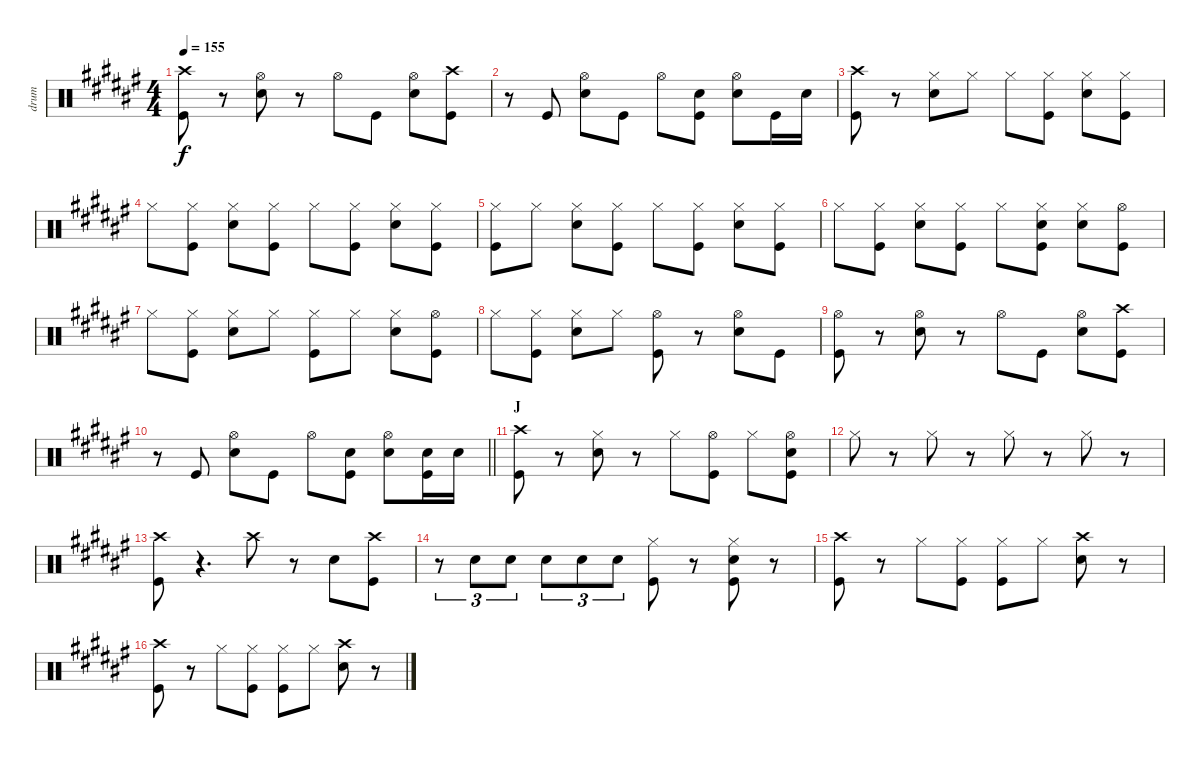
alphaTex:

\track ("drum" "drum") {instrument percussion}
\staff {score}
\articulation defaults
\ts (4 4)
\tempo 155
\clef neutral
\ks f#
("Crash high (hit)" "Kick (hit)").8{dy f} r.8 ("Hi-Hat (open)" "Snare (hit) 2").8 r.8 "Hi-Hat (open)".8 "Kick (hit)".8 ("Hi-Hat (open)" "Snare (hit) 2").8 ("Crash high (hit)" "Kick (hit)").8 |
r.8 "Kick (hit)".8 ("Hi-Hat (open)" "Snare (hit) 2").8 "Kick (hit)".8 "Hi-Hat (open)".8 ("Snare (hit) 2" "Kick (hit)").8 ("Hi-Hat (open)" "Snare (hit) 2").8 "Kick (hit)".16 "Snare (hit) 2".16 |
("Crash high (hit)" "Kick (hit)").8 r.8 ("Hi-Hat (closed)" "Snare (hit) 2").8 "Hi-Hat (closed)".8 "Hi-Hat (closed)".8 ("Hi-Hat (closed)" "Kick (hit)").8 ("Hi-Hat (closed)" "Snare (hit) 2").8 ("Hi-Hat (closed)" "Kick (hit)").8 |
"Hi-Hat (closed)".8 ("Hi-Hat (closed)" "Kick (hit)").8 ("Hi-Hat (closed)" "Snare (hit) 2").8 ("Hi-Hat (closed)" "Kick (hit)").8 "Hi-Hat (closed)".8 ("Hi-Hat (closed)" "Kick (hit)").8 ("Hi-Hat (closed)" "Snare (hit) 2").8 ("Hi-Hat (closed)" "Kick (hit)").8 |
("Hi-Hat (closed)" "Kick (hit)").8 "Hi-Hat (closed)".8 ("Hi-Hat (closed)" "Snare (hit) 2").8 ("Hi-Hat (closed)" "Kick (hit)").8 "Hi-Hat (closed)".8 ("Hi-Hat (closed)" "Kick (hit)").8 ("Hi-Hat (closed)" "Snare (hit) 2").8 ("Hi-Hat (closed)" "Kick (hit)").8 |
"Hi-Hat (closed)".8 ("Hi-Hat (closed)" "Kick (hit)").8 ("Hi-Hat (closed)" "Snare (hit) 2").8 ("Hi-Hat (closed)" "Kick (hit)").8 "Hi-Hat (closed)".8 ("Hi-Hat (closed)" "Snare (hit) 2" "Kick (hit)").8 ("Hi-Hat (closed)" "Snare (hit) 2").8 ("Hi-Hat (open)" "Kick (hit)").8 |
"Hi-Hat (closed)".8 ("Hi-Hat (closed)" "Kick (hit)").8 ("Hi-Hat (closed)" "Snare (hit) 2").8 "Hi-Hat (closed)".8 ("Hi-Hat (closed)" "Kick (hit)").8 "Hi-Hat (closed)".8 ("Hi-Hat (closed)" "Snare (hit) 2").8 ("Hi-Hat (open)" "Kick (hit)").8 |
"Hi-Hat (closed)".8 ("Hi-Hat (closed)" "Kick (hit)").8 ("Hi-Hat (closed)" "Snare (hit) 2").8 "Hi-Hat (closed)".8 ("Hi-Hat (open)" "Kick (hit)").8 r.8 ("Hi-Hat (open)" "Snare (hit) 2").8 "Kick (hit)".8 |
("Hi-Hat (open)" "Kick (hit)").8 r.8 ("Hi-Hat (open)" "Snare (hit) 2").8 r.8 "Hi-Hat (open)".8 "Kick (hit)".8 ("Hi-Hat (open)" "Snare (hit) 2").8 ("Crash high (hit)" "Kick (hit)").8 |
\barLineRight lightlight
r.8 "Kick (hit)".8 ("Hi-Hat (open)" "Snare (hit) 2").8 "Kick (hit)".8 "Hi-Hat (open)".8 ("Snare (hit) 2" "Kick (hit)").8 ("Hi-Hat (open)" "Snare (hit) 2").8 ("Snare (hit) 2" "Kick (hit)").16 "Snare (hit) 2".16 |
\section ("" "J")
("Crash high (hit)" "Kick (hit)").8 r.8 ("Hi-Hat (closed)" "Snare (hit) 2").8 r.8 "Hi-Hat (closed)".8 ("Hi-Hat (open)" "Kick (hit)").8 "Hi-Hat (closed)".8 ("Hi-Hat (open)" "Snare (hit) 2" "Kick (hit)").8 |
"Hi-Hat (closed)".8 r.8 "Hi-Hat (closed)".8 r.8 "Hi-Hat (closed)".8 r.8 "Hi-Hat (closed)".8 r.8 |
("Crash high (hit)" "Kick (hit)").8 r.4{d} "Crash high (hit)".8 r.8 "Snare (hit) 2".8 ("Crash high (hit)" "Kick (hit)").8 |
r.8{tu (3 2)} "Snare (hit) 2".8{tu (3 2)} "Snare (hit) 2".8{tu (3 2)} "Snare (hit) 2".8{tu (3 2)} "Snare (hit) 2".8{tu (3 2)} "Snare (hit) 2".8{tu (3 2)} ("Hi-Hat (closed)" "Kick (hit)").8 r.8 ("Hi-Hat (closed)" "Snare (hit) 2" "Kick (hit)").8 r.8 |
("Crash high (hit)" "Kick (hit)").8 r.8 "Hi-Hat (closed)".8 ("Hi-Hat (closed)" "Kick (hit)").8 ("Hi-Hat (closed)" "Kick (hit)").8 "Hi-Hat (closed)".8 ("Crash high (hit)" "Snare (hit) 2").8 r.8 |
("Crash high (hit)" "Kick (hit)").8 r.8 "Hi-Hat (closed)".8 ("Hi-Hat (closed)" "Kick (hit)").8 ("Hi-Hat (closed)" "Kick (hit)").8 "Hi-Hat (closed)".8 ("Crash high (hit)" "Snare (hit) 2").8 r.8
